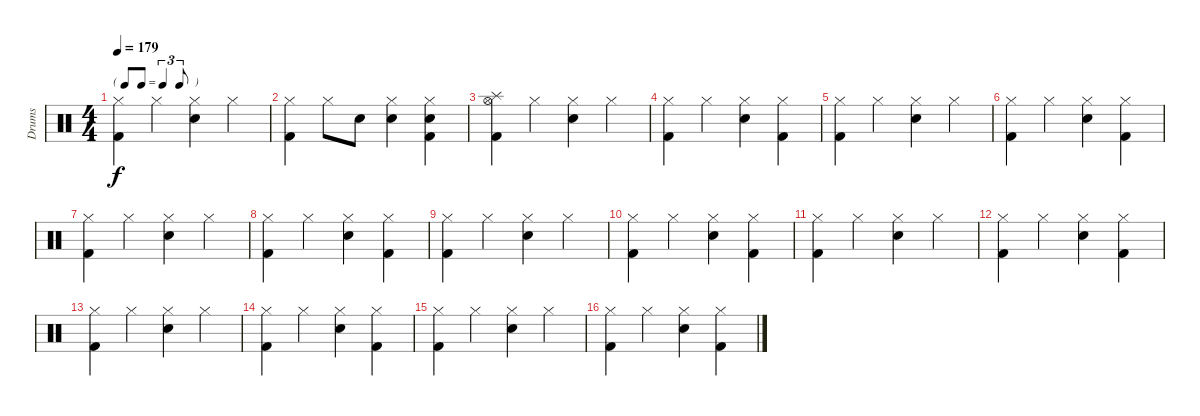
\track ("Drums" "Drums") {instrument percussion}
\staff {score}
\articulation defaults
\ts (4 4)
\tf triplet8th
\tempo 179
\clef neutral
\ks c
("Hi-Hat (closed)" "Kick (hit) 2").4{dy f} "Hi-Hat (closed)".4 ("Hi-Hat (closed)" "Snare (hit) 2").4 "Hi-Hat (closed)".4 |
("Hi-Hat (closed)" "Kick (hit) 2").4 "Hi-Hat (closed)".8 "Snare (hit) 2".8 ("Hi-Hat (closed)" "Snare (hit) 2").4 ("Hi-Hat (closed)" "Snare (hit) 2" "Kick (hit) 2").4 |
("Hi-Hat (open)" "Splash (hit)" "Kick (hit) 2").4 "Hi-Hat (closed)".4 ("Hi-Hat (closed)" "Snare (hit) 2").4 "Hi-Hat (closed)".4 |
("Hi-Hat (closed)" "Kick (hit) 2").4 "Hi-Hat (closed)".4 ("Hi-Hat (closed)" "Snare (hit) 2").4 ("Hi-Hat (closed)" "Kick (hit) 2").4 |
("Hi-Hat (closed)" "Kick (hit) 2").4 "Hi-Hat (closed)".4 ("Hi-Hat (closed)" "Snare (hit) 2").4 "Hi-Hat (closed)".4 |
("Hi-Hat (closed)" "Kick (hit) 2").4 "Hi-Hat (closed)".4 ("Hi-Hat (closed)" "Snare (hit) 2").4 ("Hi-Hat (closed)" "Kick (hit) 2").4 |
("Hi-Hat (closed)" "Kick (hit) 2").4 "Hi-Hat (closed)".4 ("Hi-Hat (closed)" "Snare (hit) 2").4 "Hi-Hat (closed)".4 |
("Hi-Hat (closed)" "Kick (hit) 2").4 "Hi-Hat (closed)".4 ("Hi-Hat (closed)" "Snare (hit) 2").4 ("Hi-Hat (closed)" "Kick (hit) 2").4 |
("Hi-Hat (closed)" "Kick (hit) 2").4 "Hi-Hat (closed)".4 ("Hi-Hat (closed)" "Snare (hit) 2").4 "Hi-Hat (closed)".4 |
("Hi-Hat (closed)" "Kick (hit) 2").4 "Hi-Hat (closed)".4 ("Hi-Hat (closed)" "Snare (hit) 2").4 ("Hi-Hat (closed)" "Kick (hit) 2").4 |
("Hi-Hat (closed)" "Kick (hit) 2").4 "Hi-Hat (closed)".4 ("Hi-Hat (closed)" "Snare (hit) 2").4 "Hi-Hat (closed)".4 |
("Hi-Hat (closed)" "Kick (hit) 2").4 "Hi-Hat (closed)".4 ("Hi-Hat (closed)" "Snare (hit) 2").4 ("Hi-Hat (closed)" "Kick (hit) 2").4 |
("Hi-Hat (closed)" "Kick (hit) 2").4 "Hi-Hat (closed)".4 ("Hi-Hat (closed)" "Snare (hit) 2").4 "Hi-Hat (closed)".4 |
("Hi-Hat (closed)" "Kick (hit) 2").4 "Hi-Hat (closed)".4 ("Hi-Hat (closed)" "Snare (hit) 2").4 ("Hi-Hat (closed)" "Kick (hit) 2").4 |
("Hi-Hat (closed)" "Kick (hit) 2").4 "Hi-Hat (closed)".4 ("Hi-Hat (closed)" "Snare (hit) 2").4 "Hi-Hat (closed)".4 |
("Hi-Hat (closed)" "Kick (hit) 2").4 "Hi-Hat (closed)".4 ("Hi-Hat (closed)" "Snare (hit) 2").4 ("Hi-Hat (closed)" "Kick (hit) 2").4
